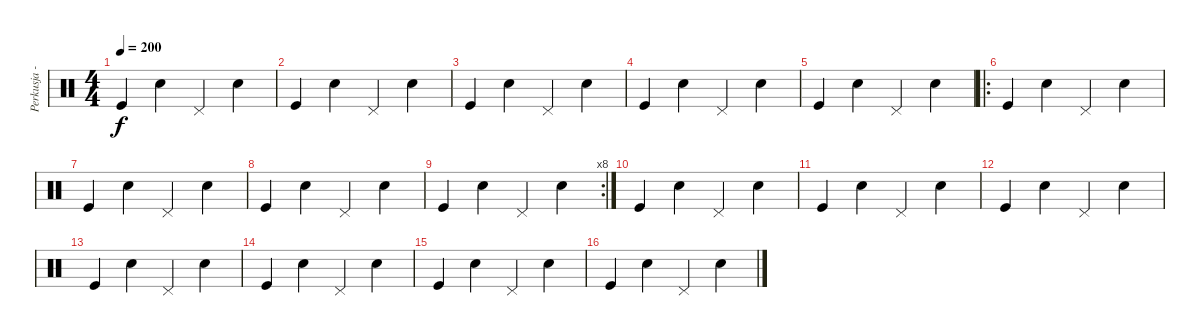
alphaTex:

\track ("Perkusja - J. Olejarz" "Perkusja -") {instrument percussion}
\staff {score}
\articulation defaults
\ts (4 4)
\tempo 200
\clef neutral
\ks c "Kick (hit)".4{dy f} "Electric Snare (hit)".4 "Pedal Hi-Hat (hit)".4 "Electric Snare (hit)".4
|
"Kick (hit)".4 "Electric Snare (hit)".4 "Pedal Hi-Hat (hit)".4 "Electric Snare (hit)".4 |
"Kick (hit)".4 "Electric Snare (hit)".4 "Pedal Hi-Hat (hit)".4 "Electric Snare (hit)".4 |
"Kick (hit)".4 "Electric Snare (hit)".4 "Pedal Hi-Hat (hit)".4 "Electric Snare (hit)".4 |
"Kick (hit)".4 "Electric Snare (hit)".4 "Pedal Hi-Hat (hit)".4 "Electric Snare (hit)".4 |
\ro "Kick (hit)".4 "Electric Snare (hit)".4 "Pedal Hi-Hat (hit)".4 "Electric Snare (hit)".4
|
"Kick (hit)".4 "Electric Snare (hit)".4 "Pedal Hi-Hat (hit)".4 "Electric Snare (hit)".4 |
"Kick (hit)".4 "Electric Snare (hit)".4 "Pedal Hi-Hat (hit)".4 "Electric Snare (hit)".4 |
\rc 8 "Kick (hit)".4 "Electric Snare (hit)".4 "Pedal Hi-Hat (hit)".4 "Electric Snare (hit)".4
|
"Kick (hit)".4 "Electric Snare (hit)".4 "Pedal Hi-Hat (hit)".4 "Electric Snare (hit)".4 |
"Kick (hit)".4 "Electric Snare (hit)".4 "Pedal Hi-Hat (hit)".4 "Electric Snare (hit)".4 |
"Kick (hit)".4 "Electric Snare (hit)".4 "Pedal Hi-Hat (hit)".4 "Electric Snare (hit)".4 |
"Kick (hit)".4 "Electric Snare (hit)".4 "Pedal Hi-Hat (hit)".4 "Electric Snare (hit)".4 |
"Kick (hit)".4 "Electric Snare (hit)".4 "Pedal Hi-Hat (hit)".4 "Electric Snare (hit)".4 |
"Kick (hit)".4 "Electric Snare (hit)".4 "Pedal Hi-Hat (hit)".4 "Electric Snare (hit)".4 |
"Kick (hit)".4 "Electric Snare (hit)".4 "Pedal Hi-Hat (hit)".4 "Electric Snare (hit)".4
